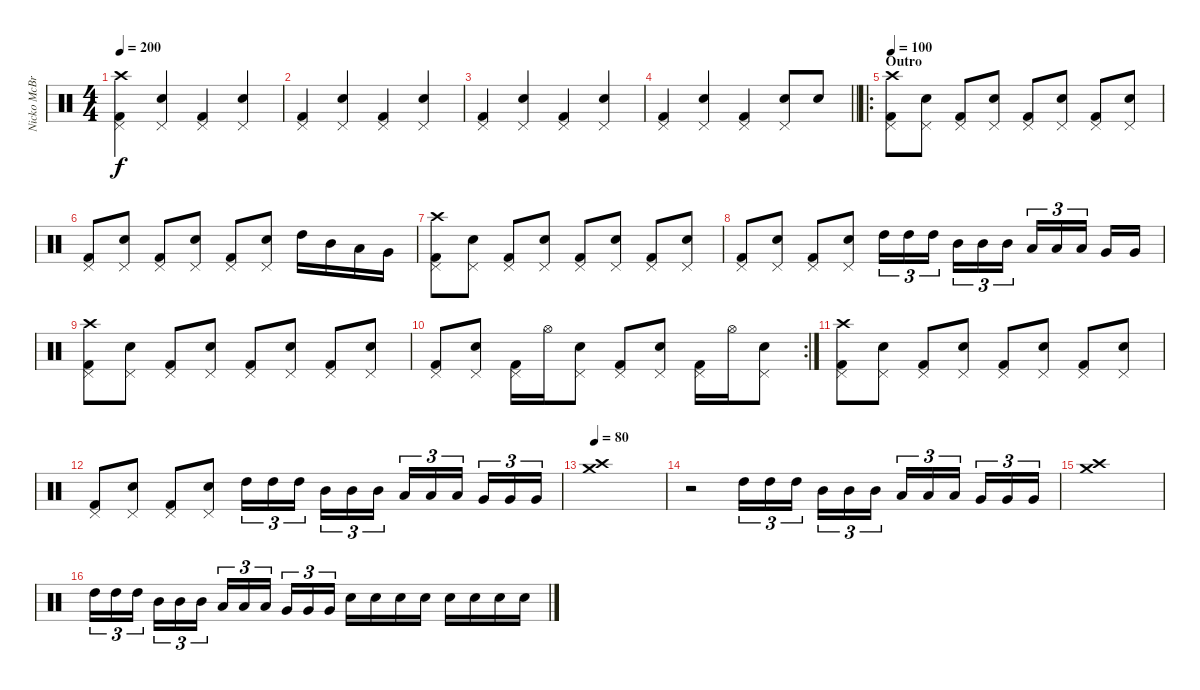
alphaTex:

\track ("Nicko McBrain" "Nicko McBr") {instrument percussion}
\staff {score}
\articulation defaults
\ts (4 4)
\tempo 200
\clef neutral
\ks c
("Pedal Hi-Hat (hit)" "Kick (hit) 2" "Crash high (hit)").4{dy f} ("Pedal Hi-Hat (hit)" "Snare (hit) 2").4 ("Pedal Hi-Hat (hit)" "Kick (hit) 2").4 ("Pedal Hi-Hat (hit)" "Snare (hit) 2").4 |
("Pedal Hi-Hat (hit)" "Kick (hit) 2").4 ("Pedal Hi-Hat (hit)" "Snare (hit) 2").4 ("Pedal Hi-Hat (hit)" "Kick (hit) 2").4 ("Pedal Hi-Hat (hit)" "Snare (hit) 2").4 |
("Pedal Hi-Hat (hit)" "Kick (hit) 2").4 ("Pedal Hi-Hat (hit)" "Snare (hit) 2").4 ("Pedal Hi-Hat (hit)" "Kick (hit) 2").4 ("Pedal Hi-Hat (hit)" "Snare (hit) 2").4 |
\barLineRight lightlight
("Pedal Hi-Hat (hit)" "Kick (hit) 2").4 ("Pedal Hi-Hat (hit)" "Snare (hit) 2").4 ("Pedal Hi-Hat (hit)" "Kick (hit) 2").4 ("Pedal Hi-Hat (hit)" "Snare (hit) 2").8 "Snare (hit) 2".8 |
\ro
\section ("" "Outro")
\tempo 100
("Pedal Hi-Hat (hit)" "Kick (hit) 2" "Crash high (hit)").8 ("Pedal Hi-Hat (hit)" "Snare (hit) 2").8 ("Pedal Hi-Hat (hit)" "Kick (hit) 2").8 ("Pedal Hi-Hat (hit)" "Snare (hit) 2").8 ("Pedal Hi-Hat (hit)" "Kick (hit) 2").8 ("Pedal Hi-Hat (hit)" "Snare (hit) 2").8 ("Pedal Hi-Hat (hit)" "Kick (hit) 2").8 ("Pedal Hi-Hat (hit)" "Snare (hit) 2").8 |
("Pedal Hi-Hat (hit)" "Kick (hit) 2").8 ("Pedal Hi-Hat (hit)" "Snare (hit) 2").8 ("Pedal Hi-Hat (hit)" "Kick (hit) 2").8 ("Pedal Hi-Hat (hit)" "Snare (hit) 2").8 ("Pedal Hi-Hat (hit)" "Kick (hit) 2").8 ("Pedal Hi-Hat (hit)" "Snare (hit) 2").8 "High Tom (hit)".16 "Mid Tom (hit)".16 "Low Tom (hit)".16 "Very Low Tom (hit)".16 |
("Pedal Hi-Hat (hit)" "Kick (hit) 2" "Crash high (hit)").8 ("Pedal Hi-Hat (hit)" "Snare (hit) 2").8 ("Pedal Hi-Hat (hit)" "Kick (hit) 2").8 ("Pedal Hi-Hat (hit)" "Snare (hit) 2").8 ("Pedal Hi-Hat (hit)" "Kick (hit) 2").8 ("Pedal Hi-Hat (hit)" "Snare (hit) 2").8 ("Pedal Hi-Hat (hit)" "Kick (hit) 2").8 ("Pedal Hi-Hat (hit)" "Snare (hit) 2").8 |
("Pedal Hi-Hat (hit)" "Kick (hit) 2").8 ("Pedal Hi-Hat (hit)" "Snare (hit) 2").8 ("Pedal Hi-Hat (hit)" "Kick (hit) 2").8 ("Pedal Hi-Hat (hit)" "Snare (hit) 2").8 "High Tom (hit)".16{tu (3 2)} "High Tom (hit)".16{tu (3 2)} "High Tom (hit)".16{tu (3 2) beam splitsecondary} "Mid Tom (hit)".16{tu (3 2)} "Mid Tom (hit)".16{tu (3 2)} "Mid Tom (hit)".16{tu (3 2)} "Low Tom (hit)".16{tu (3 2)} "Low Tom (hit)".16{tu (3 2)} "Low Tom (hit)".16{tu (3 2) beam splitsecondary} "Very Low Tom (hit)".16 "Very Low Tom (hit)".16 |
("Pedal Hi-Hat (hit)" "Kick (hit) 2" "Crash high (hit)").8 ("Pedal Hi-Hat (hit)" "Snare (hit) 2").8 ("Pedal Hi-Hat (hit)" "Kick (hit) 2").8 ("Pedal Hi-Hat (hit)" "Snare (hit) 2").8 ("Pedal Hi-Hat (hit)" "Kick (hit) 2").8 ("Pedal Hi-Hat (hit)" "Snare (hit) 2").8 ("Pedal Hi-Hat (hit)" "Kick (hit) 2").8 ("Pedal Hi-Hat (hit)" "Snare (hit) 2").8 |
\rc 2
("Pedal Hi-Hat (hit)" "Kick (hit) 2").8 ("Pedal Hi-Hat (hit)" "Snare (hit) 2").8 ("Pedal Hi-Hat (hit)" "Kick (hit) 2").16 "Hi-Hat (open)".16 ("Pedal Hi-Hat (hit)" "Snare (hit) 2").8 ("Pedal Hi-Hat (hit)" "Kick (hit) 2").8 ("Pedal Hi-Hat (hit)" "Snare (hit) 2").8 ("Pedal Hi-Hat (hit)" "Kick (hit) 2").16 "Hi-Hat (open)".16 ("Pedal Hi-Hat (hit)" "Snare (hit) 2").8 |
("Pedal Hi-Hat (hit)" "Kick (hit) 2" "Crash high (hit)").8 ("Pedal Hi-Hat (hit)" "Snare (hit) 2").8 ("Pedal Hi-Hat (hit)" "Kick (hit) 2").8 ("Pedal Hi-Hat (hit)" "Snare (hit) 2").8 ("Pedal Hi-Hat (hit)" "Kick (hit) 2").8 ("Pedal Hi-Hat (hit)" "Snare (hit) 2").8 ("Pedal Hi-Hat (hit)" "Kick (hit) 2").8 ("Pedal Hi-Hat (hit)" "Snare (hit) 2").8 |
("Pedal Hi-Hat (hit)" "Kick (hit) 2").8 ("Pedal Hi-Hat (hit)" "Snare (hit) 2").8 ("Pedal Hi-Hat (hit)" "Kick (hit) 2").8 ("Pedal Hi-Hat (hit)" "Snare (hit) 2").8 "High Tom (hit)".16{tu (3 2)} "High Tom (hit)".16{tu (3 2)} "High Tom (hit)".16{tu (3 2) beam splitsecondary} "Mid Tom (hit)".16{tu (3 2)} "Mid Tom (hit)".16{tu (3 2)} "Mid Tom (hit)".16{tu (3 2)} "Low Tom (hit)".16{tu (3 2)} "Low Tom (hit)".16{tu (3 2)} "Low Tom (hit)".16{tu (3 2) beam splitsecondary} "Very Low Tom (hit)".16{tu (3 2)} "Very Low Tom (hit)".16{tu (3 2)} "Very Low Tom (hit)".16{tu (3 2)} |
\tempo 80
("Crash high (hit)" "Crash medium (hit)").1 |
r.2 "High Tom (hit)".16{tu (3 2)} "High Tom (hit)".16{tu (3 2)} "High Tom (hit)".16{tu (3 2) beam splitsecondary} "Mid Tom (hit)".16{tu (3 2)} "Mid Tom (hit)".16{tu (3 2)} "Mid Tom (hit)".16{tu (3 2)} "Low Tom (hit)".16{tu (3 2)} "Low Tom (hit)".16{tu (3 2)} "Low Tom (hit)".16{tu (3 2) beam splitsecondary} "Very Low Tom (hit)".16{tu (3 2)} "Very Low Tom (hit)".16{tu (3 2)} "Very Low Tom (hit)".16{tu (3 2)} |
("Crash high (hit)" "Crash medium (hit)").1 |
"High Tom (hit)".16{tu (3 2)} "High Tom (hit)".16{tu (3 2)} "High Tom (hit)".16{tu (3 2) beam splitsecondary} "Mid Tom (hit)".16{tu (3 2)} "Mid Tom (hit)".16{tu (3 2)} "Mid Tom (hit)".16{tu (3 2)} "Low Tom (hit)".16{tu (3 2)} "Low Tom (hit)".16{tu (3 2)} "Low Tom (hit)".16{tu (3 2) beam splitsecondary} "Very Low Tom (hit)".16{tu (3 2)} "Very Low Tom (hit)".16{tu (3 2)} "Very Low Tom (hit)".16{tu (3 2)} "Snare (hit) 2".16 "Snare (hit) 2".16 "Snare (hit) 2".16 "Snare (hit) 2".16 "Snare (hit) 2".16 "Snare (hit) 2".16 "Snare (hit) 2".16 "Snare (hit) 2".16
